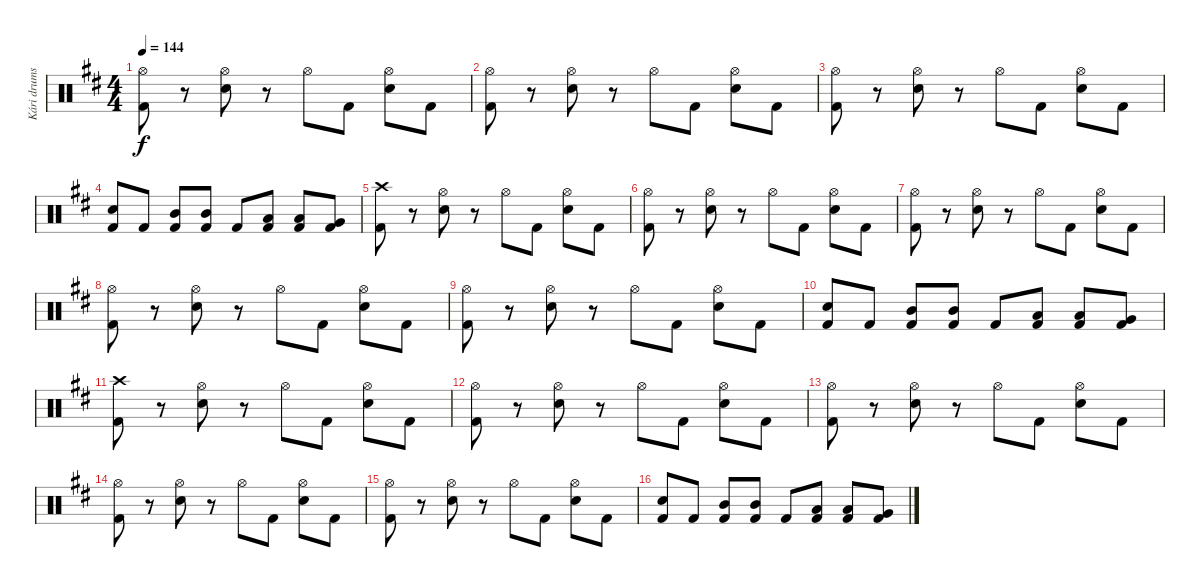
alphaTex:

\track ("Kári drums" "Kári drums") {instrument percussion}
\staff {score}
\articulation defaults
\ts (4 4)
\tempo 144
\clef neutral
\ks bminor
("Hi-Hat (open)" "Kick (hit) 2").8{dy f} r.8 ("Hi-Hat (open)" "Snare (hit) 2").8 r.8 "Hi-Hat (open)".8 "Kick (hit) 2".8 ("Hi-Hat (open)" "Snare (hit) 2").8 "Kick (hit) 2".8 |
("Hi-Hat (open)" "Kick (hit) 2").8 r.8 ("Hi-Hat (open)" "Snare (hit) 2").8 r.8 "Hi-Hat (open)".8 "Kick (hit) 2".8 ("Hi-Hat (open)" "Snare (hit) 2").8 "Kick (hit) 2".8 |
("Hi-Hat (open)" "Kick (hit) 2").8 r.8 ("Hi-Hat (open)" "Snare (hit) 2").8 r.8 "Hi-Hat (open)".8 "Kick (hit) 2".8 ("Hi-Hat (open)" "Snare (hit) 2").8 "Kick (hit) 2".8 |
("Snare (hit) 2" "Kick (hit) 2").8 "Kick (hit) 2".8 ("Mid Tom (hit)" "Kick (hit) 2").8 ("Mid Tom (hit)" "Kick (hit) 2").8 "Kick (hit) 2".8 ("Low Tom (hit)" "Kick (hit) 2").8 ("Low Tom (hit)" "Kick (hit) 2").8 ("Very Low Tom (hit)" "Kick (hit) 2").8 |
("Crash high (hit)" "Kick (hit) 2").8 r.8 ("Hi-Hat (open)" "Snare (hit) 2").8 r.8 "Hi-Hat (open)".8 "Kick (hit) 2".8 ("Hi-Hat (open)" "Snare (hit) 2").8 "Kick (hit) 2".8 |
("Hi-Hat (open)" "Kick (hit) 2").8 r.8 ("Hi-Hat (open)" "Snare (hit) 2").8 r.8 "Hi-Hat (open)".8 "Kick (hit) 2".8 ("Hi-Hat (open)" "Snare (hit) 2").8 "Kick (hit) 2".8 |
("Hi-Hat (open)" "Kick (hit) 2").8 r.8 ("Hi-Hat (open)" "Snare (hit) 2").8 r.8 "Hi-Hat (open)".8 "Kick (hit) 2".8 ("Hi-Hat (open)" "Snare (hit) 2").8 "Kick (hit) 2".8 |
("Hi-Hat (open)" "Kick (hit) 2").8 r.8 ("Hi-Hat (open)" "Snare (hit) 2").8 r.8 "Hi-Hat (open)".8 "Kick (hit) 2".8 ("Hi-Hat (open)" "Snare (hit) 2").8 "Kick (hit) 2".8 |
("Hi-Hat (open)" "Kick (hit) 2").8 r.8 ("Hi-Hat (open)" "Snare (hit) 2").8 r.8 "Hi-Hat (open)".8 "Kick (hit) 2".8 ("Hi-Hat (open)" "Snare (hit) 2").8 "Kick (hit) 2".8 |
("Snare (hit) 2" "Kick (hit) 2").8 "Kick (hit) 2".8 ("Mid Tom (hit)" "Kick (hit) 2").8 ("Mid Tom (hit)" "Kick (hit) 2").8 "Kick (hit) 2".8 ("Low Tom (hit)" "Kick (hit) 2").8 ("Low Tom (hit)" "Kick (hit) 2").8 ("Very Low Tom (hit)" "Kick (hit) 2").8 |
("Crash high (hit)" "Kick (hit) 2").8 r.8 ("Hi-Hat (open)" "Snare (hit) 2").8 r.8 "Hi-Hat (open)".8 "Kick (hit) 2".8 ("Hi-Hat (open)" "Snare (hit) 2").8 "Kick (hit) 2".8 |
("Hi-Hat (open)" "Kick (hit) 2").8 r.8 ("Hi-Hat (open)" "Snare (hit) 2").8 r.8 "Hi-Hat (open)".8 "Kick (hit) 2".8 ("Hi-Hat (open)" "Snare (hit) 2").8 "Kick (hit) 2".8 |
("Hi-Hat (open)" "Kick (hit) 2").8 r.8 ("Hi-Hat (open)" "Snare (hit) 2").8 r.8 "Hi-Hat (open)".8 "Kick (hit) 2".8 ("Hi-Hat (open)" "Snare (hit) 2").8 "Kick (hit) 2".8 |
("Hi-Hat (open)" "Kick (hit) 2").8 r.8 ("Hi-Hat (open)" "Snare (hit) 2").8 r.8 "Hi-Hat (open)".8 "Kick (hit) 2".8 ("Hi-Hat (open)" "Snare (hit) 2").8 "Kick (hit) 2".8 |
("Hi-Hat (open)" "Kick (hit) 2").8 r.8 ("Hi-Hat (open)" "Snare (hit) 2").8 r.8 "Hi-Hat (open)".8 "Kick (hit) 2".8 ("Hi-Hat (open)" "Snare (hit) 2").8 "Kick (hit) 2".8 |
("Snare (hit) 2" "Kick (hit) 2").8 "Kick (hit) 2".8 ("Mid Tom (hit)" "Kick (hit) 2").8 ("Mid Tom (hit)" "Kick (hit) 2").8 "Kick (hit) 2".8 ("Low Tom (hit)" "Kick (hit) 2").8 ("Low Tom (hit)" "Kick (hit) 2").8 ("Very Low Tom (hit)" "Kick (hit) 2").8
